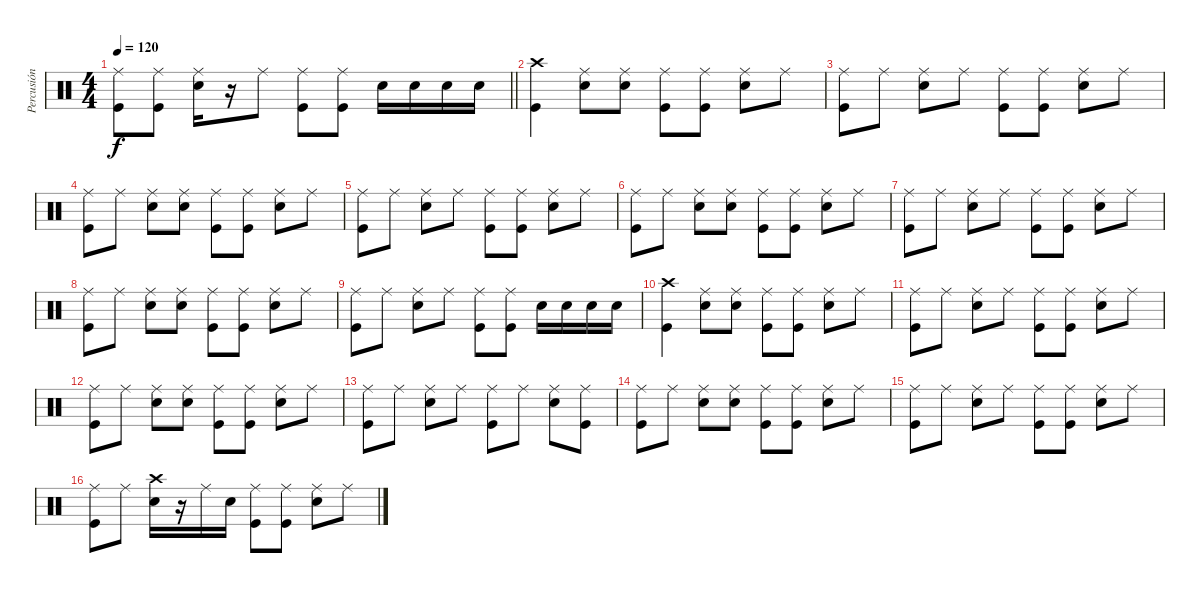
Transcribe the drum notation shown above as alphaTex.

\track ("Percusión" "Percusión") {instrument percussion}
\staff {score}
\articulation defaults
\ts (4 4)
\tempo 120
\clef neutral
\barLineRight lightlight
\ks c
("Ride (middle)" "Kick (hit)").8{dy f} ("Ride (middle)" "Kick (hit)").8 ("Ride (middle)" "Snare (hit) 2").16 r.16 "Ride (middle)".8 ("Ride (middle)" "Kick (hit)").8 ("Ride (middle)" "Kick (hit)").8 "Snare (hit) 2".16 "Snare (hit) 2".16 "Snare (hit) 2".16 "Snare (hit) 2".16 |
("Crash high (hit)" "Kick (hit)").4 ("Ride (middle)" "Snare (hit) 2").8 ("Ride (middle)" "Snare (hit) 2").8 ("Ride (middle)" "Kick (hit)").8 ("Ride (middle)" "Kick (hit)").8 ("Ride (middle)" "Snare (hit) 2").8 "Ride (middle)".8 |
("Ride (middle)" "Kick (hit)").8 "Ride (middle)".8 ("Ride (middle)" "Snare (hit) 2").8 "Ride (middle)".8 ("Ride (middle)" "Kick (hit)").8 ("Ride (middle)" "Kick (hit)").8 ("Ride (middle)" "Snare (hit) 2").8 "Ride (middle)".8 |
("Ride (middle)" "Kick (hit)").8 "Ride (middle)".8 ("Ride (middle)" "Snare (hit) 2").8 ("Ride (middle)" "Snare (hit) 2").8 ("Ride (middle)" "Kick (hit)").8 ("Ride (middle)" "Kick (hit)").8 ("Ride (middle)" "Snare (hit) 2").8 "Ride (middle)".8 |
("Ride (middle)" "Kick (hit)").8 "Ride (middle)".8 ("Ride (middle)" "Snare (hit) 2").8 "Ride (middle)".8 ("Ride (middle)" "Kick (hit)").8 ("Ride (middle)" "Kick (hit)").8 ("Ride (middle)" "Snare (hit) 2").8 "Ride (middle)".8 |
("Ride (middle)" "Kick (hit)").8 "Ride (middle)".8 ("Ride (middle)" "Snare (hit) 2").8 ("Ride (middle)" "Snare (hit) 2").8 ("Ride (middle)" "Kick (hit)").8 ("Ride (middle)" "Kick (hit)").8 ("Ride (middle)" "Snare (hit) 2").8 "Ride (middle)".8 |
("Ride (middle)" "Kick (hit)").8 "Ride (middle)".8 ("Ride (middle)" "Snare (hit) 2").8 "Ride (middle)".8 ("Ride (middle)" "Kick (hit)").8 ("Ride (middle)" "Kick (hit)").8 ("Ride (middle)" "Snare (hit) 2").8 "Ride (middle)".8 |
("Ride (middle)" "Kick (hit)").8 "Ride (middle)".8 ("Ride (middle)" "Snare (hit) 2").8 ("Ride (middle)" "Snare (hit) 2").8 ("Ride (middle)" "Kick (hit)").8 ("Ride (middle)" "Kick (hit)").8 ("Ride (middle)" "Snare (hit) 2").8 "Ride (middle)".8 |
("Ride (middle)" "Kick (hit)").8 "Ride (middle)".8 ("Ride (middle)" "Snare (hit) 2").8 "Ride (middle)".8 ("Ride (middle)" "Kick (hit)").8 ("Ride (middle)" "Kick (hit)").8 "Snare (hit) 2".16 "Snare (hit) 2".16 "Snare (hit) 2".16 "Snare (hit) 2".16 |
("Crash high (hit)" "Kick (hit)").4 ("Ride (middle)" "Snare (hit) 2").8 ("Ride (middle)" "Snare (hit) 2").8 ("Ride (middle)" "Kick (hit)").8 ("Ride (middle)" "Kick (hit)").8 ("Ride (middle)" "Snare (hit) 2").8 "Ride (middle)".8 |
("Ride (middle)" "Kick (hit)").8 "Ride (middle)".8 ("Ride (middle)" "Snare (hit) 2").8 "Ride (middle)".8 ("Ride (middle)" "Kick (hit)").8 ("Ride (middle)" "Kick (hit)").8 ("Ride (middle)" "Snare (hit) 2").8 "Ride (middle)".8 |
("Ride (middle)" "Kick (hit)").8 "Ride (middle)".8 ("Ride (middle)" "Snare (hit) 2").8 ("Ride (middle)" "Snare (hit) 2").8 ("Ride (middle)" "Kick (hit)").8 ("Ride (middle)" "Kick (hit)").8 ("Ride (middle)" "Snare (hit) 2").8 "Ride (middle)".8 |
("Ride (middle)" "Kick (hit)").8 "Ride (middle)".8 ("Ride (middle)" "Snare (hit) 2").8 "Ride (middle)".8 ("Ride (middle)" "Kick (hit)").8 "Ride (middle)".8 ("Ride (middle)" "Snare (hit) 2").8 ("Ride (middle)" "Kick (hit)").8 |
("Ride (middle)" "Kick (hit)").8 "Ride (middle)".8 ("Ride (middle)" "Snare (hit) 2").8 ("Ride (middle)" "Snare (hit) 2").8 ("Ride (middle)" "Kick (hit)").8 ("Ride (middle)" "Kick (hit)").8 ("Ride (middle)" "Snare (hit) 2").8 "Ride (middle)".8 |
("Ride (middle)" "Kick (hit)").8 "Ride (middle)".8 ("Ride (middle)" "Snare (hit) 2").8 "Ride (middle)".8 ("Ride (middle)" "Kick (hit)").8 ("Ride (middle)" "Kick (hit)").8 ("Ride (middle)" "Snare (hit) 2").8 "Ride (middle)".8 |
("Ride (middle)" "Kick (hit)").8 "Ride (middle)".8 ("Crash high (hit)" "Snare (hit) 2").16 r.16 "Ride (middle)".16 "Snare (hit) 2".16 ("Ride (middle)" "Kick (hit)").8 ("Ride (middle)" "Kick (hit)").8 ("Ride (middle)" "Snare (hit) 2").8 "Ride (middle)".8
